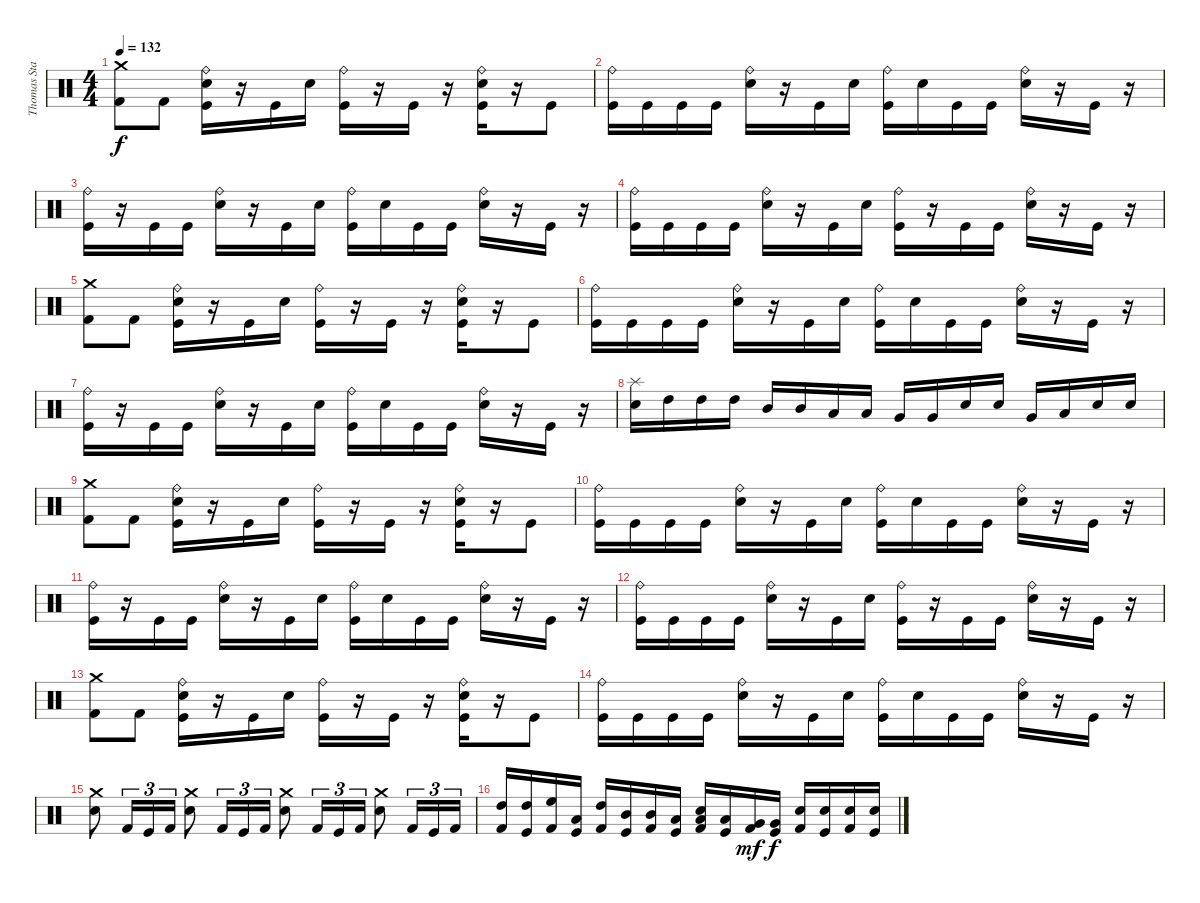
\track ("Thomas Stauch" "Thomas Sta") {instrument percussion}
\staff {score}
\articulation defaults
\ts (4 4)
\tempo 132
\clef neutral
\ks c
("Crash medium (hit)" "Kick (hit) 2").8{dy f} "Kick (hit) 2".8 ("Ride (bell)" "Electric Snare (hit)" "Kick (hit)").16 r.16 "Kick (hit)".16 "Electric Snare (hit)".16 ("Ride (bell)" "Kick (hit)").16 r.16 "Kick (hit)".16 r.16 ("Ride (bell)" "Electric Snare (hit)" "Kick (hit)").16 r.16 "Kick (hit)".8 |
("Ride (bell)" "Kick (hit)").16 "Kick (hit)".16 "Kick (hit)".16 "Kick (hit)".16 ("Ride (bell)" "Electric Snare (hit)").16 r.16 "Kick (hit)".16 "Electric Snare (hit)".16 ("Ride (bell)" "Kick (hit)").16 "Electric Snare (hit)".16 "Kick (hit)".16 "Kick (hit)".16 ("Ride (bell)" "Electric Snare (hit)").16 r.16 "Kick (hit)".16 r.16 |
("Ride (bell)" "Kick (hit)").16 r.16 "Kick (hit)".16 "Kick (hit)".16 ("Ride (bell)" "Electric Snare (hit)").16 r.16 "Kick (hit)".16 "Electric Snare (hit)".16 ("Ride (bell)" "Kick (hit)").16 "Electric Snare (hit)".16 "Kick (hit)".16 "Kick (hit)".16 ("Ride (bell)" "Electric Snare (hit)").16 r.16 "Kick (hit)".16 r.16 |
("Ride (bell)" "Kick (hit)").16 "Kick (hit)".16 "Kick (hit)".16 "Kick (hit)".16 ("Ride (bell)" "Electric Snare (hit)").16 r.16 "Kick (hit)".16 "Electric Snare (hit)".16 ("Ride (bell)" "Kick (hit)").16 r.16 "Kick (hit)".16 "Kick (hit)".16 ("Ride (bell)" "Electric Snare (hit)").16 r.16 "Kick (hit)".16 r.16 |
("Crash medium (hit)" "Kick (hit) 2").8 "Kick (hit) 2".8 ("Ride (bell)" "Electric Snare (hit)" "Kick (hit)").16 r.16 "Kick (hit)".16 "Electric Snare (hit)".16 ("Ride (bell)" "Kick (hit)").16 r.16 "Kick (hit)".16 r.16 ("Ride (bell)" "Electric Snare (hit)" "Kick (hit)").16 r.16 "Kick (hit)".8 |
("Ride (bell)" "Kick (hit)").16 "Kick (hit)".16 "Kick (hit)".16 "Kick (hit)".16 ("Ride (bell)" "Electric Snare (hit)").16 r.16 "Kick (hit)".16 "Electric Snare (hit)".16 ("Ride (bell)" "Kick (hit)").16 "Electric Snare (hit)".16 "Kick (hit)".16 "Kick (hit)".16 ("Ride (bell)" "Electric Snare (hit)").16 r.16 "Kick (hit)".16 r.16 |
("Ride (bell)" "Kick (hit)").16 r.16 "Kick (hit)".16 "Kick (hit)".16 ("Ride (bell)" "Electric Snare (hit)").16 r.16 "Kick (hit)".16 "Electric Snare (hit)".16 ("Ride (bell)" "Kick (hit)").16 "Electric Snare (hit)".16 "Kick (hit)".16 "Kick (hit)".16 ("Ride (bell)" "Electric Snare (hit)").16 r.16 "Kick (hit)".16 r.16 |
("Splash (hit)" "Electric Snare (hit)").16 "High Tom (hit)".16 "High Tom (hit)".16 "High Tom (hit)".16 "Mid Tom (hit)".16 "Mid Tom (hit)".16 "Low Tom (hit)".16 "Low Tom (hit)".16 "Very Low Tom (hit)".16 "Very Low Tom (hit)".16 "Electric Snare (hit)".16 "Electric Snare (hit)".16 "Very Low Tom (hit)".16 "Low Floor Tom (hit)".16 "Electric Snare (hit)".16 "Electric Snare (hit)".16 |
("Crash medium (hit)" "Kick (hit) 2").8 "Kick (hit) 2".8 ("Ride (bell)" "Electric Snare (hit)" "Kick (hit)").16 r.16 "Kick (hit)".16 "Electric Snare (hit)".16 ("Ride (bell)" "Kick (hit)").16 r.16 "Kick (hit)".16 r.16 ("Ride (bell)" "Electric Snare (hit)" "Kick (hit)").16 r.16 "Kick (hit)".8 |
("Ride (bell)" "Kick (hit)").16 "Kick (hit)".16 "Kick (hit)".16 "Kick (hit)".16 ("Ride (bell)" "Electric Snare (hit)").16 r.16 "Kick (hit)".16 "Electric Snare (hit)".16 ("Ride (bell)" "Kick (hit)").16 "Electric Snare (hit)".16 "Kick (hit)".16 "Kick (hit)".16 ("Ride (bell)" "Electric Snare (hit)").16 r.16 "Kick (hit)".16 r.16 |
("Ride (bell)" "Kick (hit)").16 r.16 "Kick (hit)".16 "Kick (hit)".16 ("Ride (bell)" "Electric Snare (hit)").16 r.16 "Kick (hit)".16 "Electric Snare (hit)".16 ("Ride (bell)" "Kick (hit)").16 "Electric Snare (hit)".16 "Kick (hit)".16 "Kick (hit)".16 ("Ride (bell)" "Electric Snare (hit)").16 r.16 "Kick (hit)".16 r.16 |
("Ride (bell)" "Kick (hit)").16 "Kick (hit)".16 "Kick (hit)".16 "Kick (hit)".16 ("Ride (bell)" "Electric Snare (hit)").16 r.16 "Kick (hit)".16 "Electric Snare (hit)".16 ("Ride (bell)" "Kick (hit)").16 r.16 "Kick (hit)".16 "Kick (hit)".16 ("Ride (bell)" "Electric Snare (hit)").16 r.16 "Kick (hit)".16 r.16 |
("Crash medium (hit)" "Kick (hit) 2").8 "Kick (hit) 2".8 ("Ride (bell)" "Electric Snare (hit)" "Kick (hit)").16 r.16 "Kick (hit)".16 "Electric Snare (hit)".16 ("Ride (bell)" "Kick (hit)").16 r.16 "Kick (hit)".16 r.16 ("Ride (bell)" "Electric Snare (hit)" "Kick (hit)").16 r.16 "Kick (hit)".8 |
("Ride (bell)" "Kick (hit)").16 "Kick (hit)".16 "Kick (hit)".16 "Kick (hit)".16 ("Ride (bell)" "Electric Snare (hit)").16 r.16 "Kick (hit)".16 "Electric Snare (hit)".16 ("Ride (bell)" "Kick (hit)").16 "Electric Snare (hit)".16 "Kick (hit)".16 "Kick (hit)".16 ("Ride (bell)" "Electric Snare (hit)").16 r.16 "Kick (hit)".16 r.16 |
("Crash medium (hit)" "Electric Snare (hit)").8 "Kick (hit) 2".16{tu (3 2)} "Kick (hit)".16{tu (3 2)} "Kick (hit) 2".16{tu (3 2)} ("Crash medium (hit)" "Electric Snare (hit)").8 "Kick (hit) 2".16{tu (3 2)} "Kick (hit)".16{tu (3 2)} "Kick (hit) 2".16{tu (3 2)} ("Crash medium (hit)" "Electric Snare (hit)").8 "Kick (hit) 2".16{tu (3 2)} "Kick (hit)".16{tu (3 2)} "Kick (hit) 2".16{tu (3 2)} ("Crash medium (hit)" "Electric Snare (hit)").8 "Kick (hit) 2".16{tu (3 2)} "Kick (hit)".16{tu (3 2)} "Kick (hit) 2".16{tu (3 2)} |
("High Tom (hit)" "Kick (hit) 2").16 ("High Tom (hit)" "Kick (hit)").16 ("High Floor Tom (hit)" "Kick (hit) 2").16 ("Low Tom (hit)" "Kick (hit)").16 ("High Tom (hit)" "Kick (hit) 2").16 ("Mid Tom (hit)" "Kick (hit)").16 ("Mid Tom (hit)" "Kick (hit) 2").16 ("Low Tom (hit)" "Kick (hit)").16 ("Electric Snare (hit)" "Low Tom (hit)" "Kick (hit) 2").16 ("Low Tom (hit)" "Kick (hit)").16 ("Very Low Tom (hit)" "Kick (hit) 2").16{dy mf} ("Very Low Tom (hit)" "Kick (hit)").16{dy f} ("Electric Snare (hit)" "Kick (hit) 2").16 ("Electric Snare (hit)" "Kick (hit)").16 ("Electric Snare (hit)" "Kick (hit) 2").16 ("Electric Snare (hit)" "Kick (hit)").16
